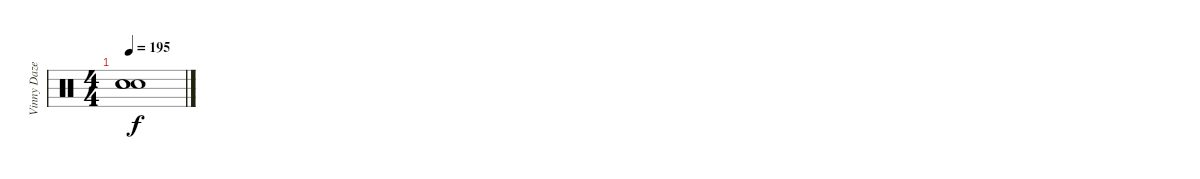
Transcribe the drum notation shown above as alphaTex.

\track ("Vinny Daze (R.I.P.)" "Vinny Daze") {instrument percussion}
\staff {score}
\articulation defaults
\ts (4 4)
\tempo 195
\clef neutral
\ks c
("Snare (hit)"{t} "Snare (hit)"{t} "Snare (hit)"{t}).1{dy f}
